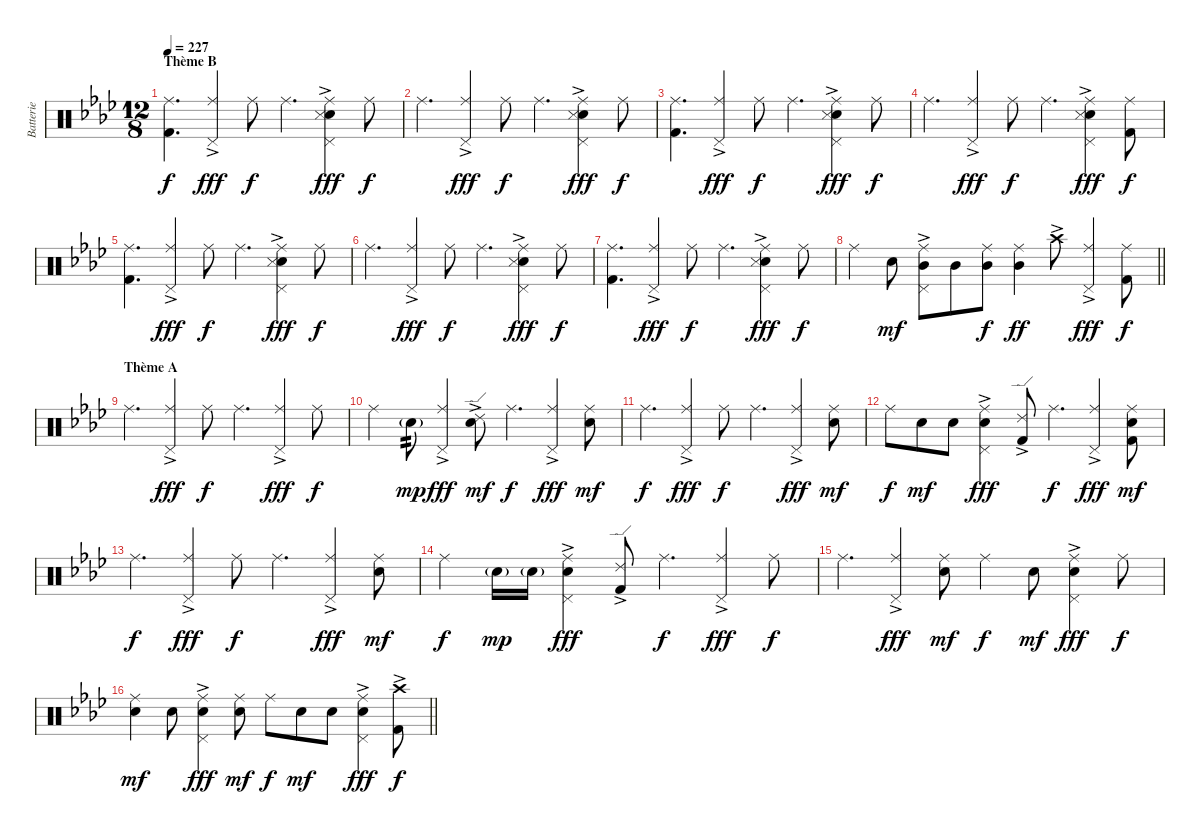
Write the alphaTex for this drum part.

\track ("Batterie" "Batterie") {instrument percussion}
\staff {score}
\articulation defaults
\ts (12 8)
\section ("" "Thème B")
\tempo 227
\clef neutral
\ks fminor
("Ride (middle)" "Kick (hit) 2").4{d dy f volume 13 balance 8} ("Ride (middle)" "Pedal Hi-Hat (hit)"{ac}).4{dy fff} "Ride (middle)".8{dy f} "Ride (middle)".4{d} ("Ride (middle)" "Pedal Hi-Hat (hit)"{ac} "Snare (hit) 2"{ac} "Snare (side stick) 3"{ac}).4{dy fff} "Ride (middle)".8{dy f} |
"Ride (middle)".4{d} ("Ride (middle)" "Pedal Hi-Hat (hit)"{ac}).4{dy fff} "Ride (middle)".8{dy f} "Ride (middle)".4{d} ("Ride (middle)" "Pedal Hi-Hat (hit)"{ac} "Snare (hit) 2"{ac} "Snare (side stick) 3"{ac}).4{dy fff} "Ride (middle)".8{dy f} |
("Ride (middle)" "Kick (hit) 2").4{d} ("Ride (middle)" "Pedal Hi-Hat (hit)"{ac}).4{dy fff} "Ride (middle)".8{dy f} "Ride (middle)".4{d} ("Ride (middle)" "Pedal Hi-Hat (hit)"{ac} "Snare (hit) 2"{ac} "Snare (side stick) 3"{ac}).4{dy fff} "Ride (middle)".8{dy f} |
"Ride (middle)".4{d} ("Ride (middle)" "Pedal Hi-Hat (hit)"{ac}).4{dy fff} "Ride (middle)".8{dy f} "Ride (middle)".4{d} ("Ride (middle)" "Pedal Hi-Hat (hit)"{ac} "Snare (hit) 2"{ac} "Snare (side stick) 3"{ac}).4{dy fff} ("Ride (middle)" "Kick (hit) 2").8{dy f} |
("Ride (middle)" "Kick (hit) 2").4{d} ("Ride (middle)" "Pedal Hi-Hat (hit)"{ac}).4{dy fff} "Ride (middle)".8{dy f} "Ride (middle)".4{d} ("Ride (middle)" "Pedal Hi-Hat (hit)"{ac} "Snare (hit) 2"{ac} "Snare (side stick) 3"{ac}).4{dy fff} "Ride (middle)".8{dy f} |
"Ride (middle)".4{d} ("Ride (middle)" "Pedal Hi-Hat (hit)"{ac}).4{dy fff} "Ride (middle)".8{dy f} "Ride (middle)".4{d} ("Ride (middle)" "Pedal Hi-Hat (hit)"{ac} "Snare (hit) 2"{ac} "Snare (side stick) 3"{ac}).4{dy fff} "Ride (middle)".8{dy f} |
("Ride (middle)" "Kick (hit) 2").4{d} ("Ride (middle)" "Pedal Hi-Hat (hit)"{ac}).4{dy fff} "Ride (middle)".8{dy f} "Ride (middle)".4{d} ("Ride (middle)" "Pedal Hi-Hat (hit)"{ac} "Snare (hit) 2"{ac} "Snare (side stick) 3"{ac}).4{dy fff} "Ride (middle)".8{dy f} |
\barLineRight lightlight "Ride (middle)".4 "Snare (hit) 2".8{dy mf}
("Ride (middle)" "Pedal Hi-Hat (hit)"{ac} "Mid Tom (hit)").8 "Mid Tom (hit)".8 ("Ride (middle)" "Mid Tom (hit)").8{dy f} ("Ride (middle)" "Mid Tom (hit)").4{dy ff} "Crash high (hit)"{ac}.8 ("Ride (middle)" "Pedal Hi-Hat (hit)"{ac}).4{dy fff} ("Ride (middle)" "Kick (hit) 2").8{dy f} |
\section ("" "Thème A")
"Ride (middle)".4{d volume 12 balance 8} ("Ride (middle)" "Pedal Hi-Hat (hit)"{ac}).4{dy fff} "Ride (middle)".8{dy f} "Ride (middle)".4{d} ("Ride (middle)" "Pedal Hi-Hat (hit)"{ac}).4{dy fff} "Ride (middle)".8{dy f} |
"Ride (middle)".4 "Snare (hit) 2"{g}.8{tp 2 dy mp} ("Ride (middle)" "Pedal Hi-Hat (hit)"{ac}).4{dy fff} ("Ride (edge) 2"{ac} "Snare (hit) 2").8{dy mf} "Ride (middle)".4{d dy f} ("Ride (middle)" "Pedal Hi-Hat (hit)"{ac}).4{dy fff} ("Ride (middle)" "Snare (hit) 2").8{dy mf} |
"Ride (middle)".4{d dy f} ("Ride (middle)" "Pedal Hi-Hat (hit)"{ac}).4{dy fff} "Ride (middle)".8{dy f} "Ride (middle)".4{d} ("Ride (middle)" "Pedal Hi-Hat (hit)"{ac}).4{dy fff} ("Ride (middle)" "Snare (hit) 2").8{dy mf} |
"Ride (middle)".8{dy f} "Snare (hit) 2".8{dy mf} "Snare (hit) 2".8 ("Ride (middle)" "Pedal Hi-Hat (hit)"{ac} "Snare (hit) 2").4{dy fff} ("Ride (edge) 2"{ac} "Kick (hit) 2").8 "Ride (middle)".4{d dy f} ("Ride (middle)" "Pedal Hi-Hat (hit)"{ac}).4{dy fff} ("Ride (middle)" "Snare (hit) 2" "Kick (hit) 2").8{dy mf} |
"Ride (middle)".4{d dy f} ("Ride (middle)" "Pedal Hi-Hat (hit)"{ac}).4{dy fff} "Ride (middle)".8{dy f} "Ride (middle)".4{d} ("Ride (middle)" "Pedal Hi-Hat (hit)"{ac}).4{dy fff} ("Ride (middle)" "Snare (hit) 2").8{dy mf} |
"Ride (middle)".4{dy f} "Snare (hit) 2"{g}.16{dy mp} "Snare (hit) 2"{g}.16 ("Ride (middle)" "Pedal Hi-Hat (hit)"{ac} "Snare (hit) 2").4{dy fff} ("Ride (edge) 2"{ac} "Kick (hit) 2").8 "Ride (middle)".4{d dy f} ("Ride (middle)" "Pedal Hi-Hat (hit)"{ac}).4{dy fff} "Ride (middle)".8{dy f} |
"Ride (middle)".4{d} ("Ride (middle)" "Pedal Hi-Hat (hit)"{ac}).4{dy fff} ("Ride (middle)" "Snare (hit) 2").8{dy mf} "Ride (middle)".4{dy f} "Snare (hit) 2".8{dy mf} ("Ride (middle)" "Pedal Hi-Hat (hit)"{ac} "Snare (hit) 2").4{dy fff} "Ride (middle)".8{dy f} |
\barLineRight lightlight
("Ride (middle)" "Snare (hit) 2").4{dy mf} "Snare (hit) 2".8 ("Ride (middle)" "Pedal Hi-Hat (hit)"{ac} "Snare (hit) 2").4{dy fff} ("Ride (middle)" "Snare (hit) 2").8{dy mf} "Ride (middle)".8{dy f} "Snare (hit) 2".8{dy mf} "Snare (hit) 2".8 ("Ride (middle)" "Pedal Hi-Hat (hit)"{ac} "Snare (hit) 2"{ac}).4{dy fff} ("Crash high (hit)"{ac} "Kick (hit) 2").8{dy f}
